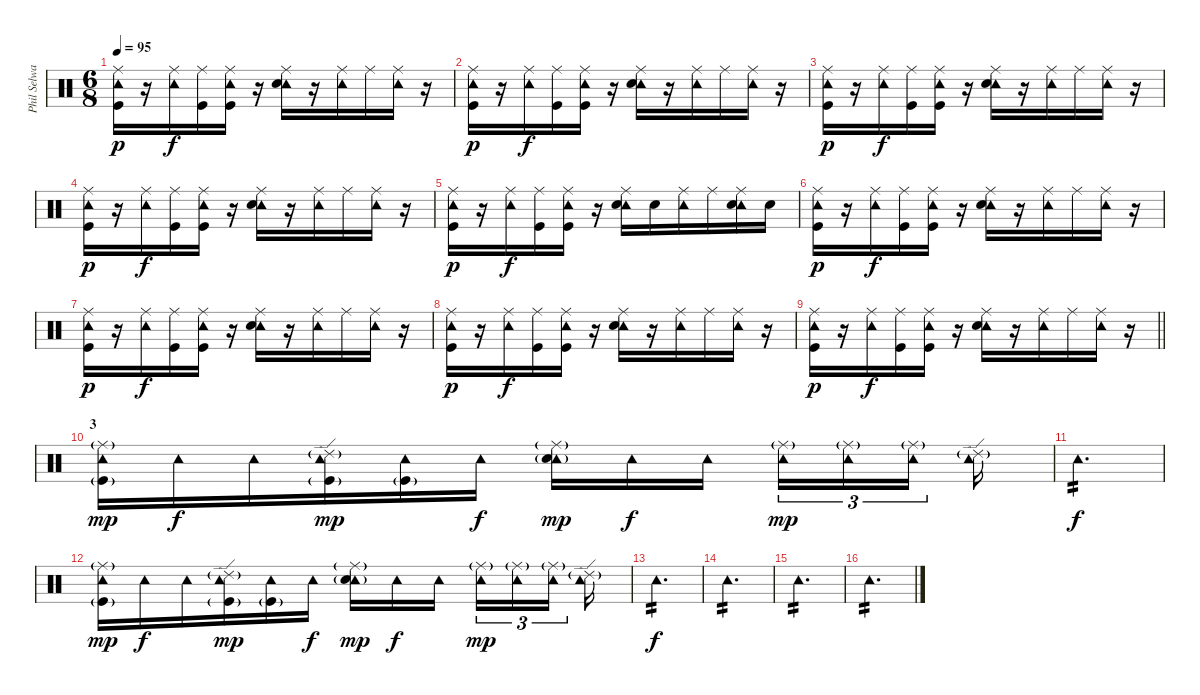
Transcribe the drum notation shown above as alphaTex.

\track ("Phil Selway (Percussions)" "Phil Selwa") {instrument percussion}
\staff {score}
\articulation defaults
\ts (6 8)
\tempo 95
\clef neutral
\ks c
("Ride (middle)" "Tambourine (hit)" "Kick (hit)").16{dy p} r.16 ("Ride (middle)" "Tambourine (hit)").16{dy f} ("Ride (middle)" "Kick (hit)").16 ("Ride (middle)" "Tambourine (hit)" "Kick (hit)").16 r.16 ("Ride (middle)" "Tambourine (hit)" "Electric Snare (hit)").16 r.16 ("Ride (middle)" "Tambourine (hit)").16 "Ride (middle)".16 ("Ride (middle)" "Tambourine (hit)").16 r.16 |
("Ride (middle)" "Tambourine (hit)" "Kick (hit)").16{dy p} r.16 ("Ride (middle)" "Tambourine (hit)").16{dy f} ("Ride (middle)" "Kick (hit)").16 ("Ride (middle)" "Tambourine (hit)" "Kick (hit)").16 r.16 ("Ride (middle)" "Tambourine (hit)" "Electric Snare (hit)").16 r.16 ("Ride (middle)" "Tambourine (hit)").16 "Ride (middle)".16 ("Ride (middle)" "Tambourine (hit)").16 r.16 |
("Ride (middle)" "Tambourine (hit)" "Kick (hit)").16{dy p} r.16 ("Ride (middle)" "Tambourine (hit)").16{dy f} ("Ride (middle)" "Kick (hit)").16 ("Ride (middle)" "Tambourine (hit)" "Kick (hit)").16 r.16 ("Ride (middle)" "Tambourine (hit)" "Electric Snare (hit)").16 r.16 ("Ride (middle)" "Tambourine (hit)").16 "Ride (middle)".16 ("Ride (middle)" "Tambourine (hit)").16 r.16 |
("Ride (middle)" "Tambourine (hit)" "Kick (hit)").16{dy p} r.16 ("Ride (middle)" "Tambourine (hit)").16{dy f} ("Ride (middle)" "Kick (hit)").16 ("Ride (middle)" "Tambourine (hit)" "Kick (hit)").16 r.16 ("Ride (middle)" "Tambourine (hit)" "Electric Snare (hit)").16 r.16 ("Ride (middle)" "Tambourine (hit)").16 "Ride (middle)".16 ("Ride (middle)" "Tambourine (hit)").16 r.16 |
("Ride (middle)" "Tambourine (hit)" "Kick (hit)").16{dy p} r.16 ("Ride (middle)" "Tambourine (hit)").16{dy f} ("Ride (middle)" "Kick (hit)").16 ("Ride (middle)" "Tambourine (hit)" "Kick (hit)").16 r.16 ("Ride (middle)" "Tambourine (hit)" "Electric Snare (hit)").16 "Electric Snare (hit)".16 ("Ride (middle)" "Tambourine (hit)").16 "Ride (middle)".16 ("Ride (middle)" "Tambourine (hit)" "Electric Snare (hit)").16 "Snare (hit) 2".16 |
("Ride (middle)" "Tambourine (hit)" "Kick (hit)").16{dy p} r.16 ("Ride (middle)" "Tambourine (hit)").16{dy f} ("Ride (middle)" "Kick (hit)").16 ("Ride (middle)" "Tambourine (hit)" "Kick (hit)").16 r.16 ("Ride (middle)" "Tambourine (hit)" "Electric Snare (hit)").16 r.16 ("Ride (middle)" "Tambourine (hit)").16 "Ride (middle)".16 ("Ride (middle)" "Tambourine (hit)").16 r.16 |
("Ride (middle)" "Tambourine (hit)" "Kick (hit)").16{dy p} r.16 ("Ride (middle)" "Tambourine (hit)").16{dy f} ("Ride (middle)" "Kick (hit)").16 ("Ride (middle)" "Tambourine (hit)" "Kick (hit)").16 r.16 ("Ride (middle)" "Tambourine (hit)" "Electric Snare (hit)").16 r.16 ("Ride (middle)" "Tambourine (hit)").16 "Ride (middle)".16 ("Ride (middle)" "Tambourine (hit)").16 r.16 |
("Ride (middle)" "Tambourine (hit)" "Kick (hit)").16{dy p} r.16 ("Ride (middle)" "Tambourine (hit)").16{dy f} ("Ride (middle)" "Kick (hit)").16 ("Ride (middle)" "Tambourine (hit)" "Kick (hit)").16 r.16 ("Ride (middle)" "Tambourine (hit)" "Electric Snare (hit)").16 r.16 ("Ride (middle)" "Tambourine (hit)").16 "Ride (middle)".16 ("Ride (middle)" "Tambourine (hit)").16 r.16 |
\barLineRight lightlight
("Ride (middle)" "Tambourine (hit)" "Kick (hit)").16{dy p} r.16 ("Ride (middle)" "Tambourine (hit)").16{dy f} ("Ride (middle)" "Kick (hit)").16 ("Ride (middle)" "Tambourine (hit)" "Kick (hit)").16 r.16 ("Ride (middle)" "Tambourine (hit)" "Electric Snare (hit)").16 r.16 ("Ride (middle)" "Tambourine (hit)").16 "Ride (middle)".16 ("Ride (middle)" "Tambourine (hit)").16 r.16 |
\section ("" "3")
("Ride (middle)"{g} "Tambourine (hit)" "Kick (hit)"{g}).16{dy mp} "Tambourine (hit)".16{dy f} "Tambourine (hit)".16 ("Ride (edge) 2"{g} "Tambourine (hit)" "Kick (hit)"{g}).16{dy mp} ("Tambourine (hit)" "Kick (hit)"{g}).16 "Tambourine (hit)".16{dy f} ("Ride (middle)"{g} "Tambourine (hit)" "Electric Snare (hit)"{g}).16{dy mp} "Tambourine (hit)".16{dy f} "Tambourine (hit)".16{beam splitsecondary} ("Ride (middle)"{g} "Tambourine (hit)").16{tu (3 2) dy mp} ("Ride (middle)"{g} "Tambourine (hit)").16{tu (3 2)} ("Ride (middle)"{g} "Tambourine (hit)").16{tu (3 2) beam splitsecondary} ("Ride (edge) 2"{g} "Tambourine (hit)").16 |
"Tambourine (hit)".2{d tp 2 dy f} |
("Ride (middle)"{g} "Tambourine (hit)" "Kick (hit)"{g}).16{dy mp} "Tambourine (hit)".16{dy f} "Tambourine (hit)".16 ("Ride (edge) 2"{g} "Tambourine (hit)" "Kick (hit)"{g}).16{dy mp} ("Tambourine (hit)" "Kick (hit)"{g}).16 "Tambourine (hit)".16{dy f} ("Ride (middle)"{g} "Tambourine (hit)" "Electric Snare (hit)"{g}).16{dy mp} "Tambourine (hit)".16{dy f} "Tambourine (hit)".16{beam splitsecondary} ("Ride (middle)"{g} "Tambourine (hit)").16{tu (3 2) dy mp} ("Ride (middle)"{g} "Tambourine (hit)").16{tu (3 2)} ("Ride (middle)"{g} "Tambourine (hit)").16{tu (3 2) beam splitsecondary} ("Ride (edge) 2"{g} "Tambourine (hit)").16 |
"Tambourine (hit)".2{d tp 2 dy f} |
"Tambourine (hit)".2{d tp 2} |
"Tambourine (hit)".2{d tp 2} |
"Tambourine (hit)".2{d tp 2}
